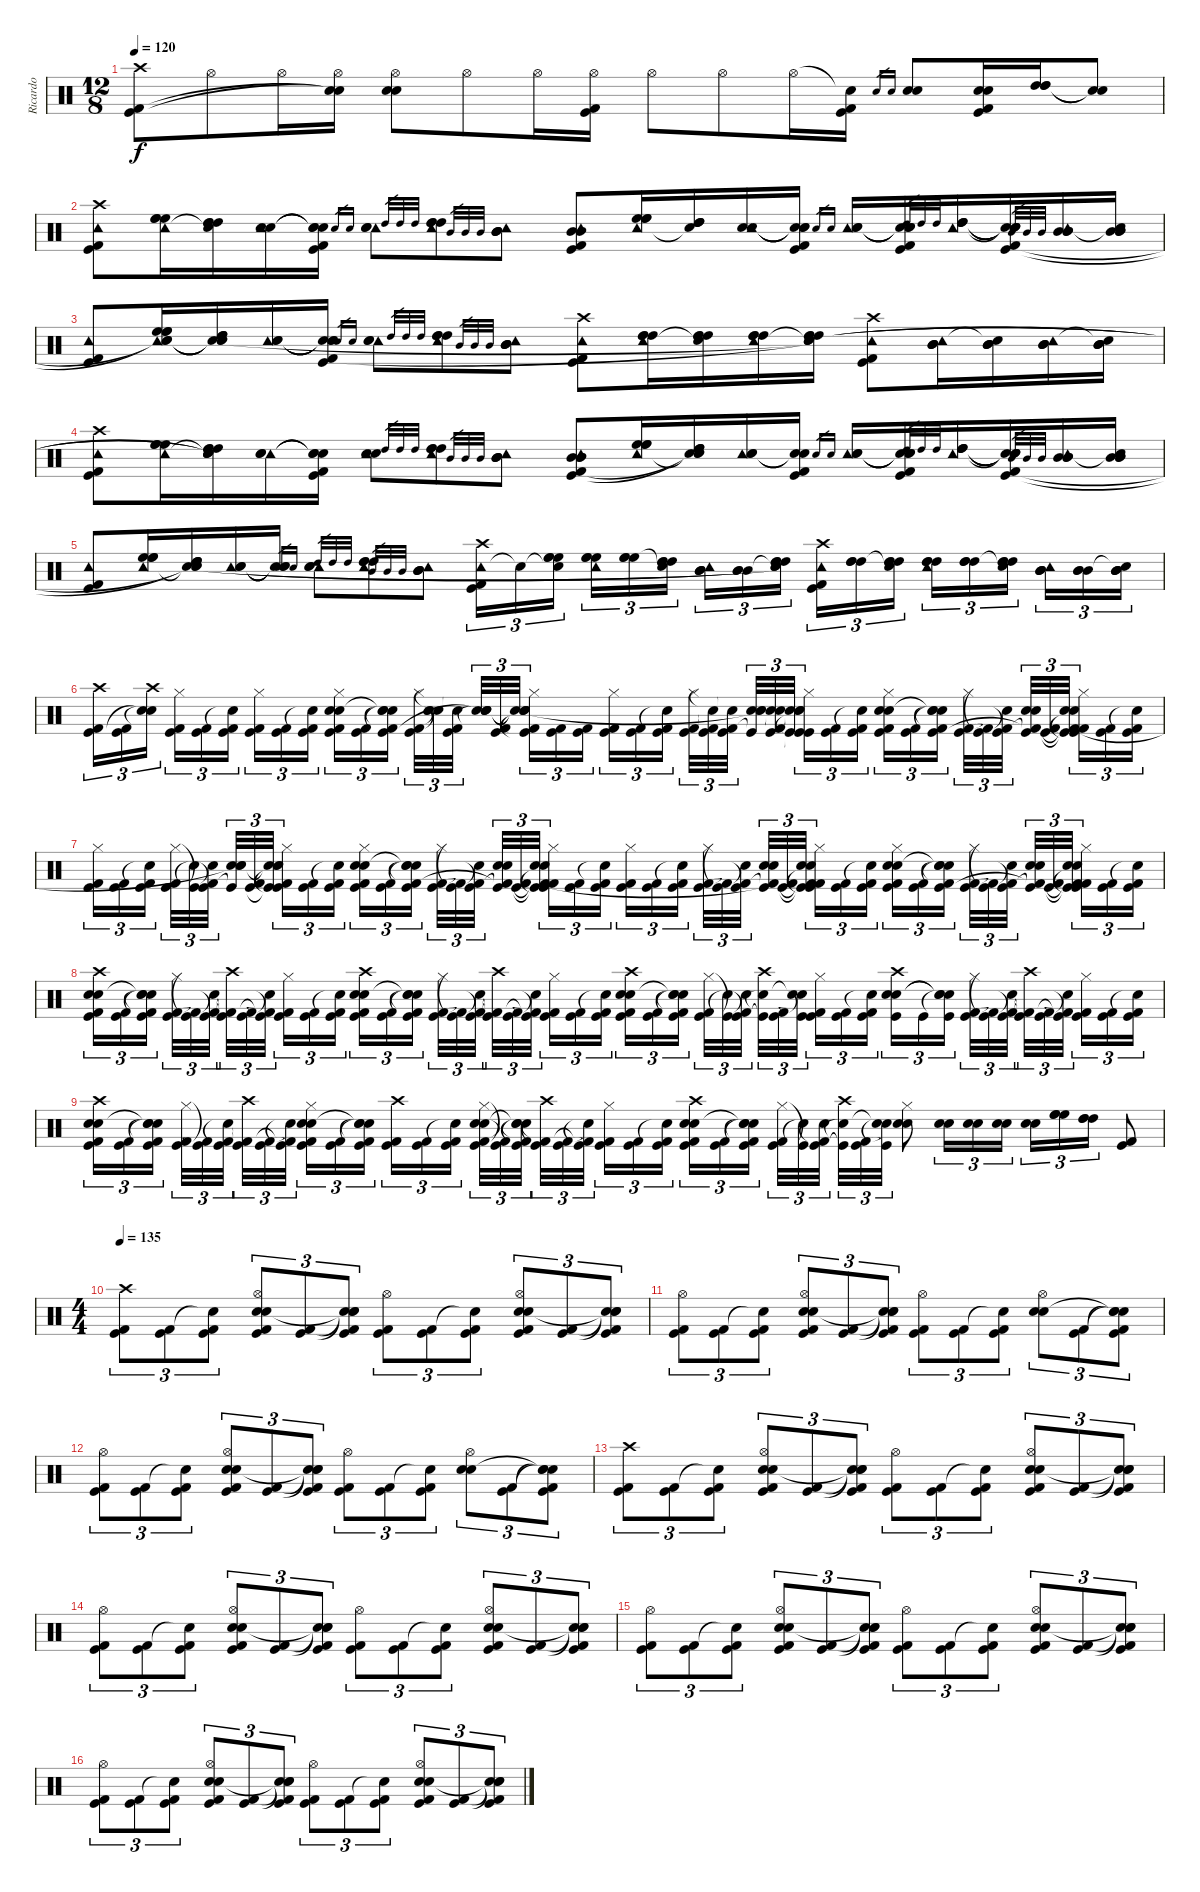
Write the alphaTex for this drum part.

\track ("Ricardo" "Ricardo") {instrument percussion}
\staff {score}
\articulation defaults
\ts (12 8)
\tempo 120
\clef neutral
\ks c
("Crash high (hit)" "Kick (hit)" "Kick (hit) 2").8{dy f} "Hi-Hat (open)".8 "Hi-Hat (open)".16 ("Hi-Hat (open)" "Snare (hit)"{t} "Snare (hit)"{t}).16 ("Hi-Hat (open)" "Electric Snare (hit)" "Snare (hit) 2").8 "Hi-Hat (open)".8 "Hi-Hat (open)".16 ("Hi-Hat (open)" "Kick (hit) 2" "Kick (hit)").16 "Hi-Hat (open)".8 "Hi-Hat (open)".8 "Hi-Hat (open)".16 ("Snare (hit)"{t} "Kick (hit)" "Kick (hit) 2").16 "Electric Snare (hit)".16{gr} "Snare (hit) 2".16{gr} ("Electric Snare (hit)" "Snare (hit) 2").8 ("Snare (hit) 2" "Electric Snare (hit)" "Kick (hit) 2" "Kick (hit)").16 ("High Tom (hit)" "High Tom (hit)" "High Tom (hit)").16 ("Snare (hit)"{t} "Snare (hit)"{t}).8 |
("Crash high (hit)" "Tambourine (hit)" "Kick (hit) 2" "Kick (hit)").8 ("High Floor Tom (hit)" "High Floor Tom (hit)" "High Floor Tom (hit)" "Tambourine (hit)").16 ("High Tom (hit)" "High Tom (hit)" "High Tom (hit)" "Snare (hit)"{t}).16 ("Electric Snare (hit)" "Snare (hit) 2" "Tambourine (hit)").16 ("Snare (hit)"{t} "Snare (hit)"{t} "Snare (hit)"{t} "Kick (hit) 2" "Kick (hit)").16 "Electric Snare (hit)".16{gr} "Snare (hit) 2".16{gr} ("Tambourine (hit)" "Electric Snare (hit)" "Snare (hit) 2").8 "High Tom (hit)".32{gr} "High Tom (hit)".32{gr} "High Tom (hit)".32{gr} ("Tambourine (hit)" "High Tom (hit)" "High Tom (hit)" "High Tom (hit)").8 "Mid Tom (hit)".32{gr} "Mid Tom (hit)".32{gr} "Mid Tom (hit)".32{gr} ("Tambourine (hit)" "Mid Tom (hit)" "Mid Tom (hit)" "Mid Tom (hit)").8 ("Tambourine (hit)" "Mid Tom (hit)" "Mid Tom (hit)" "Kick (hit) 2" "Kick (hit)").8 ("High Floor Tom (hit)" "High Floor Tom (hit)" "High Floor Tom (hit)" "Tambourine (hit)").16 ("High Tom (hit)" "High Tom (hit)" "High Tom (hit)" "Snare (hit)"{t}).16 ("Electric Snare (hit)" "Snare (hit) 2" "Tambourine (hit)").16 ("Snare (hit)"{t} "Snare (hit)"{t} "Snare (hit)"{t} "Kick (hit) 2" "Kick (hit)").16 "Electric Snare (hit)".16{gr} "Snare (hit) 2".16{gr} ("Tambourine (hit)" "Electric Snare (hit)" "Snare (hit) 2").16 ("Snare (hit)"{t} "Snare (hit)"{t} "Snare (hit)"{t} "Kick (hit) 2" "Kick (hit)").16 "High Tom (hit)".32{gr} "High Tom (hit)".32{gr} "High Tom (hit)".32{gr} ("Tambourine (hit)" "High Tom (hit)" "High Tom (hit)" "High Tom (hit)").16 ("Snare (hit)"{t} "Snare (hit)"{t} "Snare (hit)"{t} "Snare (hit)"{t} "Kick (hit) 2" "Kick (hit)").16 "Mid Tom (hit)".32{gr} "Mid Tom (hit)".32{gr} "Mid Tom (hit)".32{gr} ("Tambourine (hit)" "Mid Tom (hit)" "Mid Tom (hit)" "Mid Tom (hit)").16 ("Snare (hit)"{t} "Mid Tom (hit)" "Mid Tom (hit)" "Mid Tom (hit)").16 |
("Tambourine (hit)" "Kick (hit) 2" "Kick (hit)").8 ("Tambourine (hit)" "High Floor Tom (hit)" "High Floor Tom (hit)" "High Floor Tom (hit)" "Snare (hit)"{t} "Snare (hit)"{t}).16 ("Snare (hit)"{t} "High Tom (hit)" "High Tom (hit)" "High Tom (hit)" "Snare (hit)"{t} "Snare (hit)"{t}).16 ("Tambourine (hit)" "Electric Snare (hit)" "Snare (hit) 2").16 ("Snare (hit)"{t} "Snare (hit)"{t} "Snare (hit)"{t} "Kick (hit)" "Kick (hit) 2").16 "Electric Snare (hit)".16{gr} "Snare (hit) 2".16{gr} ("Tambourine (hit)" "Electric Snare (hit)" "Snare (hit) 2").8 "High Tom (hit)".32{gr} "High Tom (hit)".32{gr} "High Tom (hit)".32{gr} ("Tambourine (hit)" "High Tom (hit)" "High Tom (hit)" "High Tom (hit)").8 "Mid Tom (hit)".32{gr} "Mid Tom (hit)".32{gr} "Mid Tom (hit)".32{gr} ("Tambourine (hit)" "Mid Tom (hit)" "Mid Tom (hit)" "Mid Tom (hit)").8 ("Crash high (hit)" "Tambourine (hit)" "Kick (hit)" "Kick (hit) 2").8 ("Tambourine (hit)" "High Tom (hit)" "High Tom (hit)" "High Tom (hit)").16 ("Snare (hit)"{t} "High Tom (hit)" "High Tom (hit)" "High Tom (hit)").16 ("Tambourine (hit)" "High Tom (hit)" "High Tom (hit)" "High Tom (hit)").16 ("Snare (hit)"{t} "High Tom (hit)" "High Tom (hit)" "High Tom (hit)" "Snare (hit)"{t} "Snare (hit)"{t}).16 ("Crash high (hit)" "Tambourine (hit)" "Kick (hit)" "Kick (hit) 2").8 ("Tambourine (hit)" "Mid Tom (hit)" "Mid Tom (hit)" "Mid Tom (hit)").16 ("Snare (hit)"{t} "Mid Tom (hit)" "Mid Tom (hit)" "Mid Tom (hit)").16 ("Tambourine (hit)" "Mid Tom (hit)" "Mid Tom (hit)" "Mid Tom (hit)").16 ("Snare (hit)"{t} "Mid Tom (hit)" "Mid Tom (hit)" "Mid Tom (hit)").16 |
("Crash high (hit)" "Tambourine (hit)" "Kick (hit)" "Kick (hit) 2").8 ("Tambourine (hit)" "High Floor Tom (hit)" "High Floor Tom (hit)" "High Floor Tom (hit)").16 ("Snare (hit)"{t} "High Tom (hit)" "High Tom (hit)" "High Tom (hit)" "Snare (hit)"{t} "Snare (hit)"{t}).16 ("Tambourine (hit)" "Electric Snare (hit)" "Snare (hit) 2").16 ("Snare (hit)"{t} "Snare (hit)"{t} "Snare (hit)"{t} "Kick (hit) 2" "Kick (hit)").16 ("Electric Snare (hit)" "Snare (hit) 2" "Tambourine (hit)").8 "High Tom (hit)".32{gr} "High Tom (hit)".32{gr} "High Tom (hit)".32{gr} ("Tambourine (hit)" "High Tom (hit)" "High Tom (hit)" "High Tom (hit)").8 "Mid Tom (hit)".32{gr} "Mid Tom (hit)".32{gr} "Mid Tom (hit)".32{gr} ("Mid Tom (hit)" "Mid Tom (hit)" "Mid Tom (hit)" "Tambourine (hit)").8 ("Tambourine (hit)" "Mid Tom (hit)" "Mid Tom (hit)" "Mid Tom (hit)" "Kick (hit)" "Kick (hit) 2").8 ("Tambourine (hit)" "High Floor Tom (hit)" "High Floor Tom (hit)" "High Floor Tom (hit)").16 ("Snare (hit)"{t} "High Tom (hit)" "High Tom (hit)" "High Tom (hit)" "Snare (hit)"{t} "Snare (hit)"{t}).16 ("Tambourine (hit)" "Electric Snare (hit)" "Snare (hit) 2").16 ("Snare (hit)"{t} "Snare (hit)"{t} "Kick (hit) 2" "Kick (hit)").16 "Electric Snare (hit)".16{gr} "Snare (hit) 2".16{gr} ("Tambourine (hit)" "Electric Snare (hit)" "Snare (hit) 2").16 ("Snare (hit)"{t} "Snare (hit)"{t} "Snare (hit)"{t} "Kick (hit)" "Kick (hit) 2").16 "High Tom (hit)".32{gr} "High Tom (hit)".32{gr} "High Tom (hit)".32{gr} ("Tambourine (hit)" "High Tom (hit)" "High Tom (hit)" "High Tom (hit)").16 ("Snare (hit)"{t} "Snare (hit)"{t} "Snare (hit)"{t} "Snare (hit)"{t} "Kick (hit) 2" "Kick (hit)").16 "Mid Tom (hit)".32{gr} "Mid Tom (hit)".32{gr} "Mid Tom (hit)".32{gr} ("Tambourine (hit)" "Mid Tom (hit)" "Mid Tom (hit)" "Mid Tom (hit)").16 ("Snare (hit)"{t} "Mid Tom (hit)" "Mid Tom (hit)" "Mid Tom (hit)").16 |
("Tambourine (hit)" "Kick (hit) 2" "Kick (hit)").8 ("Tambourine (hit)" "High Floor Tom (hit)" "High Floor Tom (hit)" "High Floor Tom (hit)").16 ("Snare (hit)"{t} "High Tom (hit)" "High Tom (hit)" "High Tom (hit)" "Snare (hit)"{t} "Snare (hit)"{t}).16 ("Tambourine (hit)" "Electric Snare (hit)" "Snare (hit) 2").16 ("Snare (hit)"{t} "Snare (hit)"{t} "Snare (hit)"{t}).16 "Electric Snare (hit)".16{gr} "Snare (hit) 2".16{gr} ("Tambourine (hit)" "Electric Snare (hit)" "Snare (hit) 2").8 "High Tom (hit)".32{gr} "High Tom (hit)".32{gr} "High Tom (hit)".32{gr} ("Tambourine (hit)" "High Tom (hit)" "High Tom (hit)" "High Tom (hit)").8 "Mid Tom (hit)".32{gr} "Mid Tom (hit)".32{gr} "Mid Tom (hit)".32{gr} ("Tambourine (hit)" "Mid Tom (hit)" "Mid Tom (hit)" "Mid Tom (hit)").8 ("Tambourine (hit)" "Crash high (hit)" "Kick (hit)" "Kick (hit) 2").16{tu (3 2)} "Snare (hit)"{t}.16{tu (3 2)} ("Snare (hit)"{t} "High Floor Tom (hit)" "High Floor Tom (hit)" "High Floor Tom (hit)").16{tu (3 2)} ("Tambourine (hit)" "High Floor Tom (hit)" "High Floor Tom (hit)" "High Floor Tom (hit)").16{tu (3 2)} ("High Floor Tom (hit)" "High Floor Tom (hit)" "High Floor Tom (hit)").16{tu (3 2)} ("Snare (hit)"{t} "High Tom (hit)" "High Tom (hit)" "High Tom (hit)").16{tu (3 2)} ("Tambourine (hit)" "Mid Tom (hit)" "Mid Tom (hit)" "Mid Tom (hit)").16{tu (3 2)} ("Mid Tom (hit)" "Mid Tom (hit)" "Mid Tom (hit)").16{tu (3 2)} ("Snare (hit)"{t} "High Tom (hit)" "High Tom (hit)" "High Tom (hit)" "Snare (hit)"{t} "Snare (hit)"{t}).16{tu (3 2)} ("Tambourine (hit)" "Crash high (hit)" "Kick (hit)" "Kick (hit) 2").16{tu (3 2)} ("High Tom (hit)" "High Tom (hit)" "High Tom (hit)").16{tu (3 2)} ("Snare (hit)"{t} "High Tom (hit)" "High Tom (hit)" "High Tom (hit)").16{tu (3 2)} ("Tambourine (hit)" "High Tom (hit)" "High Tom (hit)" "High Tom (hit)").16{tu (3 2)} ("High Tom (hit)" "High Tom (hit)" "High Tom (hit)").16{tu (3 2)} ("Snare (hit)"{t} "High Tom (hit)" "High Tom (hit)" "High Tom (hit)").16{tu (3 2)} ("Tambourine (hit)" "Mid Tom (hit)" "Mid Tom (hit)" "Mid Tom (hit)").16{tu (3 2)} ("Mid Tom (hit)" "Mid Tom (hit)" "Mid Tom (hit)").16{tu (3 2)} ("Snare (hit)"{t} "Mid Tom (hit)" "Mid Tom (hit)" "Mid Tom (hit)").16{tu (3 2)} |
("Crash high (hit)" "Kick (hit) 2" "Kick (hit)").16{tu (3 2)} ("Kick (hit)" "Kick (hit) 2").16{tu (3 2)} ("Crash high (hit)" "Snare (hit)"{t} "Snare (hit)"{t}).16{tu (3 2)} ("Hi-Hat (closed)" "Kick (hit)" "Kick (hit) 2").16{tu (3 2)} ("Kick (hit)" "Kick (hit) 2").16{tu (3 2)} ("Snare (hit)"{t} "Kick (hit)" "Kick (hit) 2").16{tu (3 2)} ("Hi-Hat (closed)" "Kick (hit)" "Kick (hit) 2").16{tu (3 2)} ("Kick (hit)" "Kick (hit) 2").16{tu (3 2)} ("Snare (hit)"{t} "Kick (hit)" "Kick (hit) 2").16{tu (3 2)} ("Hi-Hat (closed)" "Electric Snare (hit)" "Snare (hit) 2" "Kick (hit)" "Kick (hit) 2").16{tu (3 2)} ("Kick (hit)" "Kick (hit) 2").16{tu (3 2)} ("Snare (hit)"{t} "Snare (hit)"{t} "Snare (hit)"{t} "Kick (hit)" "Kick (hit) 2").16{tu (3 2)} ("Hi-Hat (closed)" "Kick (hit)" "Kick (hit) 2").32{tu (3 2)} ("Snare (hit)"{t} "Snare (hit)"{t} "Snare (hit)"{t}).32{tu (3 2)} ("Snare (hit)"{t} "Kick (hit)" "Kick (hit) 2").32{tu (3 2)} ("Electric Snare (hit)" "Snare (hit) 2" "Snare (hit)"{t} "Snare (hit)"{t}).32{tu (3 2)} ("Kick (hit)" "Kick (hit) 2").32{tu (3 2)} ("Snare (hit)"{t} "Snare (hit)"{t} "Snare (hit)"{t} "Snare (hit)"{t}).32{tu (3 2)} ("Hi-Hat (closed)" "Kick (hit)" "Kick (hit) 2").16{tu (3 2)} ("Kick (hit)" "Kick (hit) 2").16{tu (3 2)} ("Kick (hit)" "Kick (hit) 2").16{tu (3 2)} ("Hi-Hat (closed)" "Kick (hit)" "Kick (hit) 2").16{tu (3 2)} ("Kick (hit)" "Kick (hit) 2").16{tu (3 2)} ("Snare (hit)"{t} "Kick (hit)" "Kick (hit) 2").16{tu (3 2)} ("Hi-Hat (closed)" "Kick (hit)" "Kick (hit) 2").32{tu (3 2)} ("Snare (hit)"{t} "Kick (hit)"{t} "Kick (hit) 2"{t}).32{tu (3 2)} ("Snare (hit)"{t} "Kick (hit)" "Kick (hit) 2").32{tu (3 2)} ("Electric Snare (hit)" "Snare (hit) 2" "Kick (hit)"{t} "Snare (hit)"{t}).32{tu (3 2)} ("Snare (hit)"{t} "Snare (hit)"{t} "Kick (hit)" "Kick (hit) 2").32{tu (3 2)} ("Snare (hit)"{t} "Snare (hit)"{t} "Kick (hit)"{t} "Snare (hit)"{t}).32{tu (3 2)} ("Hi-Hat (closed)" "Kick (hit)" "Kick (hit)").16{tu (3 2)} ("Kick (hit)" "Kick (hit) 2").16{tu (3 2)} ("Snare (hit)"{t} "Kick (hit) 2" "Kick (hit)").16{tu (3 2)} ("Hi-Hat (closed)" "Electric Snare (hit)" "Snare (hit) 2" "Kick (hit)" "Kick (hit) 2").16{tu (3 2)} ("Kick (hit)" "Kick (hit) 2").16{tu (3 2)} ("Snare (hit)"{t} "Snare (hit)"{t} "Snare (hit)"{t} "Kick (hit)" "Kick (hit) 2").16{tu (3 2)} ("Hi-Hat (closed)" "Kick (hit)" "Kick (hit) 2").32{tu (3 2)} ("Kick (hit)"{t} "Kick (hit) 2"{t}).32{tu (3 2)} ("Snare (hit)"{t} "Kick (hit)" "Kick (hit) 2").32{tu (3 2)} ("Electric Snare (hit)" "Snare (hit) 2" "Kick (hit)"{t} "Kick (hit) 2"{t}).32{tu (3 2)} ("Kick (hit)" "Kick (hit) 2").32{tu (3 2)} ("Snare (hit)"{t} "Snare (hit)"{t} "Kick (hit)"{t} "Kick (hit) 2"{t}).32{tu (3 2)} ("Hi-Hat (closed)" "Kick (hit)" "Kick (hit) 2").16{tu (3 2)} ("Kick (hit)" "Kick (hit) 2").16{tu (3 2)} ("Snare (hit)"{t} "Kick (hit)" "Kick (hit) 2").16{tu (3 2)} |
("Hi-Hat (closed)" "Kick (hit)" "Kick (hit) 2").16{tu (3 2)} ("Kick (hit)" "Kick (hit) 2").16{tu (3 2)} ("Snare (hit)"{t} "Kick (hit)" "Kick (hit) 2").16{tu (3 2)} ("Hi-Hat (closed)" "Kick (hit)" "Kick (hit) 2").32{tu (3 2)} ("Kick (hit)"{t} "Snare (hit)"{t}).32{tu (3 2)} ("Snare (hit)"{t} "Kick (hit)" "Kick (hit) 2").32{tu (3 2)} ("Electric Snare (hit)" "Snare (hit) 2" "Kick (hit)"{t} "Snare (hit)"{t}).32{tu (3 2)} ("Kick (hit)" "Kick (hit) 2").32{tu (3 2)} ("Snare (hit)"{t} "Snare (hit)"{t} "Kick (hit)"{t} "Snare (hit)"{t}).32{tu (3 2)} ("Hi-Hat (closed)" "Kick (hit)" "Kick (hit) 2").16{tu (3 2)} ("Kick (hit)" "Kick (hit) 2").16{tu (3 2)} ("Snare (hit)"{t} "Kick (hit) 2" "Kick (hit)").16{tu (3 2)} ("Hi-Hat (closed)" "Electric Snare (hit)" "Snare (hit) 2" "Kick (hit)" "Kick (hit) 2").16{tu (3 2)} ("Kick (hit)" "Kick (hit) 2").16{tu (3 2)} ("Snare (hit)"{t} "Snare (hit)"{t} "Snare (hit)"{t} "Kick (hit) 2" "Kick (hit)").16{tu (3 2)} ("Hi-Hat (closed)" "Kick (hit)" "Kick (hit) 2").32{tu (3 2)} ("Kick (hit)"{t} "Kick (hit) 2"{t}).32{tu (3 2)} ("Snare (hit)"{t} "Kick (hit)" "Kick (hit) 2").32{tu (3 2)} ("Electric Snare (hit)" "Snare (hit) 2" "Kick (hit)"{t} "Kick (hit) 2"{t}).32{tu (3 2)} ("Kick (hit)" "Kick (hit) 2").32{tu (3 2)} ("Snare (hit)"{t} "Snare (hit)"{t} "Kick (hit)"{t} "Kick (hit) 2"{t}).32{tu (3 2)} ("Hi-Hat (closed)" "Kick (hit) 2" "Kick (hit)").16{tu (3 2)} ("Kick (hit) 2" "Kick (hit)").16{tu (3 2)} ("Snare (hit)"{t} "Kick (hit) 2" "Kick (hit)").16{tu (3 2)} ("Hi-Hat (closed)" "Kick (hit)" "Kick (hit) 2").16{tu (3 2)} ("Kick (hit)" "Kick (hit) 2").16{tu (3 2)} ("Snare (hit)"{t} "Kick (hit)" "Kick (hit) 2").16{tu (3 2)} ("Hi-Hat (closed)" "Kick (hit)" "Kick (hit) 2").32{tu (3 2)} ("Kick (hit)"{t} "Kick (hit) 2"{t}).32{tu (3 2)} ("Snare (hit)"{t} "Kick (hit)" "Kick (hit) 2").32{tu (3 2)} ("Electric Snare (hit)" "Snare (hit) 2" "Kick (hit)"{t} "Kick (hit) 2"{t}).32{tu (3 2)} ("Kick (hit)" "Kick (hit) 2").32{tu (3 2)} ("Snare (hit)"{t} "Snare (hit)"{t} "Kick (hit)"{t} "Kick (hit) 2"{t}).32{tu (3 2)} ("Hi-Hat (closed)" "Kick (hit)" "Kick (hit) 2").16{tu (3 2)} ("Kick (hit)" "Kick (hit) 2").16{tu (3 2)} ("Snare (hit)"{t} "Kick (hit)" "Kick (hit) 2").16{tu (3 2)} ("Hi-Hat (closed)" "Electric Snare (hit)" "Snare (hit) 2" "Kick (hit)" "Kick (hit) 2").16{tu (3 2)} ("Kick (hit)" "Kick (hit) 2").16{tu (3 2)} ("Snare (hit)"{t} "Snare (hit)"{t} "Snare (hit)"{t} "Kick (hit)" "Kick (hit) 2").16{tu (3 2)} ("Hi-Hat (closed)" "Kick (hit)" "Kick (hit) 2").32{tu (3 2)} ("Kick (hit)"{t} "Kick (hit) 2"{t}).32{tu (3 2)} ("Snare (hit)"{t} "Kick (hit)" "Kick (hit) 2").32{tu (3 2)} ("Electric Snare (hit)" "Snare (hit) 2" "Kick (hit)"{t} "Kick (hit) 2"{t}).32{tu (3 2)} ("Kick (hit)" "Kick (hit) 2").32{tu (3 2)} ("Snare (hit)"{t} "Snare (hit)"{t} "Kick (hit)"{t} "Kick (hit) 2"{t}).32{tu (3 2)} ("Hi-Hat (closed)" "Kick (hit)" "Kick (hit) 2").16{tu (3 2)} ("Kick (hit)" "Kick (hit) 2").16{tu (3 2)} ("Snare (hit)"{t} "Kick (hit)" "Kick (hit) 2").16{tu (3 2)} |
("Crash high (hit)" "Electric Snare (hit)" "Snare (hit) 2" "Kick (hit)" "Kick (hit) 2").16{tu (3 2)} ("Kick (hit)" "Kick (hit) 2").16{tu (3 2)} ("Snare (hit)"{t} "Snare (hit)"{t} "Snare (hit)"{t} "Kick (hit)" "Kick (hit) 2").16{tu (3 2)} ("Hi-Hat (closed)" "Kick (hit)" "Kick (hit) 2").32{tu (3 2)} ("Kick (hit)"{t} "Kick (hit) 2"{t}).32{tu (3 2)} ("Snare (hit)"{t} "Kick (hit)" "Kick (hit) 2").32{tu (3 2)} ("Crash high (hit)" "Kick (hit)"{t} "Kick (hit) 2"{t}).32{tu (3 2)} ("Kick (hit)" "Kick (hit) 2").32{tu (3 2)} ("Snare (hit)"{t} "Kick (hit)"{t} "Kick (hit) 2"{t}).32{tu (3 2)} ("Hi-Hat (closed)" "Kick (hit)" "Kick (hit) 2").16{tu (3 2)} ("Kick (hit)" "Kick (hit) 2").16{tu (3 2)} ("Snare (hit)"{t} "Kick (hit)" "Kick (hit) 2").16{tu (3 2)} ("Crash high (hit)" "Electric Snare (hit)" "Snare (hit) 2" "Kick (hit)" "Kick (hit) 2").16{tu (3 2)} ("Kick (hit)" "Kick (hit) 2").16{tu (3 2)} ("Snare (hit)"{t} "Snare (hit)"{t} "Snare (hit)"{t} "Kick (hit)" "Kick (hit) 2").16{tu (3 2)} ("Hi-Hat (closed)" "Kick (hit)" "Kick (hit) 2").32{tu (3 2)} ("Kick (hit)"{t} "Kick (hit) 2"{t}).32{tu (3 2)} ("Snare (hit)"{t} "Kick (hit)" "Kick (hit) 2").32{tu (3 2)} ("Crash high (hit)" "Kick (hit)"{t} "Kick (hit) 2"{t}).32{tu (3 2)} ("Kick (hit)" "Kick (hit) 2").32{tu (3 2)} ("Snare (hit)"{t} "Kick (hit)"{t} "Kick (hit) 2"{t}).32{tu (3 2)} ("Hi-Hat (closed)" "Kick (hit)" "Kick (hit) 2").16{tu (3 2)} ("Kick (hit)" "Kick (hit) 2").16{tu (3 2)} ("Snare (hit)"{t} "Kick (hit)" "Kick (hit) 2").16{tu (3 2)} ("Crash high (hit)" "Electric Snare (hit)" "Snare (hit) 2" "Kick (hit)" "Kick (hit) 2").16{tu (3 2)} ("Kick (hit)" "Kick (hit) 2").16{tu (3 2)} ("Snare (hit)"{t} "Snare (hit)"{t} "Snare (hit)"{t} "Kick (hit)" "Kick (hit) 2").16{tu (3 2)} ("Hi-Hat (closed)" "Kick (hit)" "Kick (hit) 2").32{tu (3 2)} ("Kick (hit)"{t} "Snare (hit)"{t}).32{tu (3 2)} ("Snare (hit)"{t} "Kick (hit)" "Kick (hit) 2").32{tu (3 2)} ("Crash high (hit)" "Kick (hit)"{t} "Snare (hit)"{t}).32{tu (3 2)} ("Kick (hit)" "Kick (hit) 2").32{tu (3 2)} ("Snare (hit)"{t} "Kick (hit)"{t} "Snare (hit)"{t}).32{tu (3 2)} ("Hi-Hat (closed)" "Kick (hit) 2" "Kick (hit)").16{tu (3 2)} ("Kick (hit) 2" "Kick (hit)").16{tu (3 2)} ("Snare (hit)"{t} "Kick (hit) 2" "Kick (hit)").16{tu (3 2)} ("Crash high (hit)" "Electric Snare (hit)" "Snare (hit) 2" "Kick (hit)").16{tu (3 2)} "Kick (hit)".16{tu (3 2)} ("Snare (hit)"{t} "Snare (hit)"{t} "Snare (hit)"{t} "Kick (hit)").16{tu (3 2)} ("Hi-Hat (closed)" "Kick (hit)" "Kick (hit) 2").32{tu (3 2)} ("Kick (hit)"{t} "Kick (hit) 2"{t}).32{tu (3 2)} ("Snare (hit)"{t} "Kick (hit)" "Kick (hit) 2").32{tu (3 2)} ("Crash high (hit)" "Kick (hit)"{t} "Kick (hit) 2"{t}).32{tu (3 2)} ("Kick (hit)" "Kick (hit) 2").32{tu (3 2)} ("Snare (hit)"{t} "Kick (hit)"{t} "Kick (hit) 2"{t}).32{tu (3 2)} ("Hi-Hat (closed)" "Kick (hit)" "Kick (hit) 2").16{tu (3 2)} ("Kick (hit)" "Kick (hit) 2").16{tu (3 2)} ("Snare (hit)"{t} "Kick (hit)" "Kick (hit) 2").16{tu (3 2)} |
("Crash high (hit)" "Electric Snare (hit)" "Snare (hit) 2" "Kick (hit)" "Kick (hit) 2").16{tu (3 2)} ("Kick (hit)" "Kick (hit) 2").16{tu (3 2)} ("Snare (hit)"{t} "Snare (hit)"{t} "Snare (hit)"{t} "Kick (hit)" "Kick (hit) 2").16{tu (3 2)} ("Hi-Hat (closed)" "Kick (hit)" "Kick (hit) 2").32{tu (3 2)} ("Kick (hit)"{t} "Kick (hit) 2"{t}).32{tu (3 2)} ("Snare (hit)"{t} "Kick (hit)" "Kick (hit) 2").32{tu (3 2)} ("Crash high (hit)" "Kick (hit)"{t} "Kick (hit) 2"{t}).32{tu (3 2)} ("Kick (hit)" "Kick (hit) 2").32{tu (3 2)} ("Snare (hit)"{t} "Kick (hit)"{t} "Kick (hit) 2"{t}).32{tu (3 2)} ("Hi-Hat (closed)" "Electric Snare (hit)" "Snare (hit) 2" "Kick (hit)" "Kick (hit) 2").16{tu (3 2)} ("Kick (hit)" "Kick (hit) 2").16{tu (3 2)} ("Snare (hit)"{t} "Snare (hit)"{t} "Snare (hit)"{t} "Kick (hit)" "Kick (hit) 2").16{tu (3 2)} ("Crash high (hit)" "Kick (hit)" "Kick (hit) 2").16{tu (3 2)} ("Kick (hit)" "Kick (hit) 2").16{tu (3 2)} ("Snare (hit)"{t} "Kick (hit)" "Kick (hit) 2").16{tu (3 2)} ("Hi-Hat (closed)" "Electric Snare (hit)" "Snare (hit) 2" "Kick (hit)" "Kick (hit) 2").32{tu (3 2)} ("Kick (hit)"{t} "Kick (hit) 2"{t}).32{tu (3 2)} ("Snare (hit)"{t} "Snare (hit)"{t} "Snare (hit)"{t} "Kick (hit)" "Kick (hit) 2").32{tu (3 2)} ("Crash high (hit)" "Kick (hit)"{t} "Kick (hit) 2"{t}).32{tu (3 2)} ("Kick (hit)" "Kick (hit) 2").32{tu (3 2)} ("Snare (hit)"{t} "Kick (hit)"{t} "Kick (hit) 2"{t}).32{tu (3 2)} ("Hi-Hat (closed)" "Kick (hit)" "Kick (hit) 2").16{tu (3 2)} ("Kick (hit)" "Kick (hit) 2").16{tu (3 2)} ("Snare (hit)"{t} "Kick (hit)" "Kick (hit) 2").16{tu (3 2)} ("Crash high (hit)" "Electric Snare (hit)" "Snare (hit) 2" "Kick (hit)" "Kick (hit) 2").16{tu (3 2)} ("Kick (hit)" "Kick (hit) 2").16{tu (3 2)} ("Snare (hit)"{t} "Snare (hit)"{t} "Snare (hit)"{t} "Kick (hit)" "Kick (hit) 2").16{tu (3 2)} ("Hi-Hat (closed)" "Kick (hit)" "Kick (hit) 2").32{tu (3 2)} ("Kick (hit)"{t} "Snare (hit)"{t}).32{tu (3 2)} ("Snare (hit)"{t} "Kick (hit)" "Kick (hit) 2").32{tu (3 2)} ("Crash high (hit)" "Kick (hit)"{t} "Snare (hit)"{t}).32{tu (3 2)} ("Kick (hit)" "Kick (hit) 2").32{tu (3 2)} ("Snare (hit)"{t} "Kick (hit)"{t} "Snare (hit)"{t}).32{tu (3 2)} ("Hi-Hat (closed)" "Electric Snare (hit)" "Snare (hit) 2").8 ("Electric Snare (hit)" "Snare (hit) 2").16{tu (3 2)} ("Electric Snare (hit)" "Snare (hit) 2").16{tu (3 2)} ("Electric Snare (hit)" "Snare (hit) 2").16{tu (3 2)} ("Electric Snare (hit)" "Snare (hit) 2").16{tu (3 2)} ("High Floor Tom (hit)" "High Floor Tom (hit)" "High Floor Tom (hit)").16{tu (3 2)} ("High Tom (hit)" "High Tom (hit)" "High Tom (hit)").16{tu (3 2)} ("Kick (hit)" "Kick (hit) 2").8 |
\ts (4 4)
\tempo 141
\tempo 134
\tempo 135
("Crash high (hit)" "Kick (hit) 2" "Kick (hit)").8{tu (3 2)} ("Kick (hit) 2" "Kick (hit)").8{tu (3 2)} ("Snare (hit)"{t} "Kick (hit) 2" "Kick (hit)").8{tu (3 2)} ("Hi-Hat (open)" "Electric Snare (hit)" "Snare (hit) 2" "Kick (hit) 2" "Kick (hit)").8{tu (3 2)} ("Kick (hit) 2" "Kick (hit)").8{tu (3 2)} ("Snare (hit)"{t} "Snare (hit)"{t} "Snare (hit)"{t} "Kick (hit) 2" "Kick (hit)").8{tu (3 2)} ("Hi-Hat (open)" "Kick (hit) 2" "Kick (hit)").8{tu (3 2)} ("Kick (hit) 2" "Kick (hit)").8{tu (3 2)} ("Snare (hit)"{t} "Kick (hit) 2" "Kick (hit)").8{tu (3 2)} ("Hi-Hat (open)" "Electric Snare (hit)" "Snare (hit) 2" "Kick (hit) 2" "Kick (hit)").8{tu (3 2)} ("Kick (hit) 2" "Kick (hit)").8{tu (3 2)} ("Snare (hit)"{t} "Snare (hit)"{t} "Snare (hit)"{t} "Kick (hit) 2" "Kick (hit)").8{tu (3 2)} |
("Hi-Hat (open)" "Kick (hit) 2" "Kick (hit)").8{tu (3 2)} ("Kick (hit) 2" "Kick (hit)").8{tu (3 2)} ("Snare (hit)"{t} "Kick (hit) 2" "Kick (hit)").8{tu (3 2)} ("Hi-Hat (open)" "Electric Snare (hit)" "Snare (hit) 2" "Kick (hit) 2" "Kick (hit)").8{tu (3 2)} ("Kick (hit) 2" "Kick (hit)").8{tu (3 2)} ("Snare (hit)"{t} "Snare (hit)"{t} "Snare (hit)"{t} "Kick (hit) 2" "Kick (hit)").8{tu (3 2)} ("Hi-Hat (open)" "Kick (hit) 2" "Kick (hit)").8{tu (3 2)} ("Kick (hit) 2" "Kick (hit)").8{tu (3 2)} ("Snare (hit)"{t} "Kick (hit) 2" "Kick (hit)").8{tu (3 2)} ("Hi-Hat (open)" "Electric Snare (hit)" "Snare (hit) 2").8{tu (3 2)} ("Kick (hit) 2" "Kick (hit)").8{tu (3 2)} ("Snare (hit)"{t} "Snare (hit)"{t} "Snare (hit)"{t} "Kick (hit) 2" "Kick (hit)").8{tu (3 2)} |
("Hi-Hat (open)" "Kick (hit) 2" "Kick (hit)").8{tu (3 2)} ("Kick (hit) 2" "Kick (hit)").8{tu (3 2)} ("Snare (hit)"{t} "Kick (hit) 2" "Kick (hit)").8{tu (3 2)} ("Hi-Hat (open)" "Electric Snare (hit)" "Snare (hit) 2" "Kick (hit) 2" "Kick (hit)").8{tu (3 2)} ("Kick (hit) 2" "Kick (hit)").8{tu (3 2)} ("Snare (hit)"{t} "Snare (hit)"{t} "Snare (hit)"{t} "Kick (hit) 2" "Kick (hit)").8{tu (3 2)} ("Hi-Hat (open)" "Kick (hit) 2" "Kick (hit)").8{tu (3 2)} ("Kick (hit) 2" "Kick (hit)").8{tu (3 2)} ("Snare (hit)"{t} "Kick (hit) 2" "Kick (hit)").8{tu (3 2)} ("Hi-Hat (open)" "Electric Snare (hit)" "Snare (hit) 2").8{tu (3 2)} ("Kick (hit) 2" "Kick (hit)").8{tu (3 2)} ("Snare (hit)"{t} "Snare (hit)"{t} "Snare (hit)"{t} "Kick (hit) 2" "Kick (hit)").8{tu (3 2)} |
("Crash high (hit)" "Kick (hit) 2" "Kick (hit)").8{tu (3 2)} ("Kick (hit) 2" "Kick (hit)").8{tu (3 2)} ("Snare (hit)"{t} "Kick (hit) 2" "Kick (hit)").8{tu (3 2)} ("Hi-Hat (open)" "Electric Snare (hit)" "Snare (hit) 2" "Kick (hit) 2" "Kick (hit)").8{tu (3 2)} ("Kick (hit) 2" "Kick (hit)").8{tu (3 2)} ("Snare (hit)"{t} "Snare (hit)"{t} "Snare (hit)"{t} "Kick (hit) 2" "Kick (hit)").8{tu (3 2)} ("Hi-Hat (open)" "Kick (hit) 2" "Kick (hit)").8{tu (3 2)} ("Kick (hit) 2" "Kick (hit)").8{tu (3 2)} ("Snare (hit)"{t} "Kick (hit) 2" "Kick (hit)").8{tu (3 2)} ("Hi-Hat (open)" "Electric Snare (hit)" "Snare (hit) 2" "Kick (hit) 2" "Kick (hit)").8{tu (3 2)} ("Kick (hit) 2" "Kick (hit)").8{tu (3 2)} ("Snare (hit)"{t} "Snare (hit)"{t} "Snare (hit)"{t} "Kick (hit) 2" "Kick (hit)").8{tu (3 2)} |
("Hi-Hat (open)" "Kick (hit) 2" "Kick (hit)").8{tu (3 2)} ("Kick (hit) 2" "Kick (hit)").8{tu (3 2)} ("Snare (hit)"{t} "Kick (hit) 2" "Kick (hit)").8{tu (3 2)} ("Hi-Hat (open)" "Electric Snare (hit)" "Snare (hit) 2" "Kick (hit) 2" "Kick (hit)").8{tu (3 2)} ("Kick (hit) 2" "Kick (hit)").8{tu (3 2)} ("Snare (hit)"{t} "Snare (hit)"{t} "Snare (hit)"{t} "Kick (hit) 2" "Kick (hit)").8{tu (3 2)} ("Hi-Hat (open)" "Kick (hit) 2" "Kick (hit)").8{tu (3 2)} ("Kick (hit) 2" "Kick (hit)").8{tu (3 2)} ("Snare (hit)"{t} "Kick (hit) 2" "Kick (hit)").8{tu (3 2)} ("Hi-Hat (open)" "Electric Snare (hit)" "Snare (hit) 2" "Kick (hit) 2" "Kick (hit)").8{tu (3 2)} ("Kick (hit) 2" "Kick (hit)").8{tu (3 2)} ("Snare (hit)"{t} "Snare (hit)"{t} "Snare (hit)"{t} "Kick (hit) 2" "Kick (hit)").8{tu (3 2)} |
("Hi-Hat (open)" "Kick (hit) 2" "Kick (hit)").8{tu (3 2)} ("Kick (hit) 2" "Kick (hit)").8{tu (3 2)} ("Snare (hit)"{t} "Kick (hit) 2" "Kick (hit)").8{tu (3 2)} ("Hi-Hat (open)" "Electric Snare (hit)" "Snare (hit) 2" "Kick (hit) 2" "Kick (hit)").8{tu (3 2)} ("Kick (hit) 2" "Kick (hit)").8{tu (3 2)} ("Snare (hit)"{t} "Snare (hit)"{t} "Snare (hit)"{t} "Kick (hit) 2" "Kick (hit)").8{tu (3 2)} ("Hi-Hat (open)" "Kick (hit) 2" "Kick (hit)").8{tu (3 2)} ("Kick (hit) 2" "Kick (hit)").8{tu (3 2)} ("Snare (hit)"{t} "Kick (hit) 2" "Kick (hit)").8{tu (3 2)} ("Hi-Hat (open)" "Electric Snare (hit)" "Snare (hit) 2" "Kick (hit) 2" "Kick (hit)").8{tu (3 2)} ("Kick (hit) 2" "Kick (hit)").8{tu (3 2)} ("Snare (hit)"{t} "Snare (hit)"{t} "Snare (hit)"{t} "Kick (hit) 2" "Kick (hit)").8{tu (3 2)} |
("Hi-Hat (open)" "Kick (hit) 2" "Kick (hit)").8{tu (3 2)} ("Kick (hit) 2" "Kick (hit)").8{tu (3 2)} ("Snare (hit)"{t} "Kick (hit) 2" "Kick (hit)").8{tu (3 2)} ("Hi-Hat (open)" "Electric Snare (hit)" "Snare (hit) 2" "Kick (hit) 2" "Kick (hit)").8{tu (3 2)} ("Kick (hit) 2" "Kick (hit)").8{tu (3 2)} ("Snare (hit)"{t} "Snare (hit)"{t} "Snare (hit)"{t} "Kick (hit) 2" "Kick (hit)").8{tu (3 2)} ("Hi-Hat (open)" "Kick (hit) 2" "Kick (hit)").8{tu (3 2)} ("Kick (hit) 2" "Kick (hit)").8{tu (3 2)} ("Snare (hit)"{t} "Kick (hit) 2" "Kick (hit)").8{tu (3 2)} ("Hi-Hat (open)" "Electric Snare (hit)" "Snare (hit) 2" "Kick (hit) 2" "Kick (hit)").8{tu (3 2)} ("Kick (hit) 2" "Kick (hit)").8{tu (3 2)} ("Snare (hit)"{t} "Snare (hit)"{t} "Snare (hit)"{t} "Kick (hit) 2" "Kick (hit)").8{tu (3 2)}
